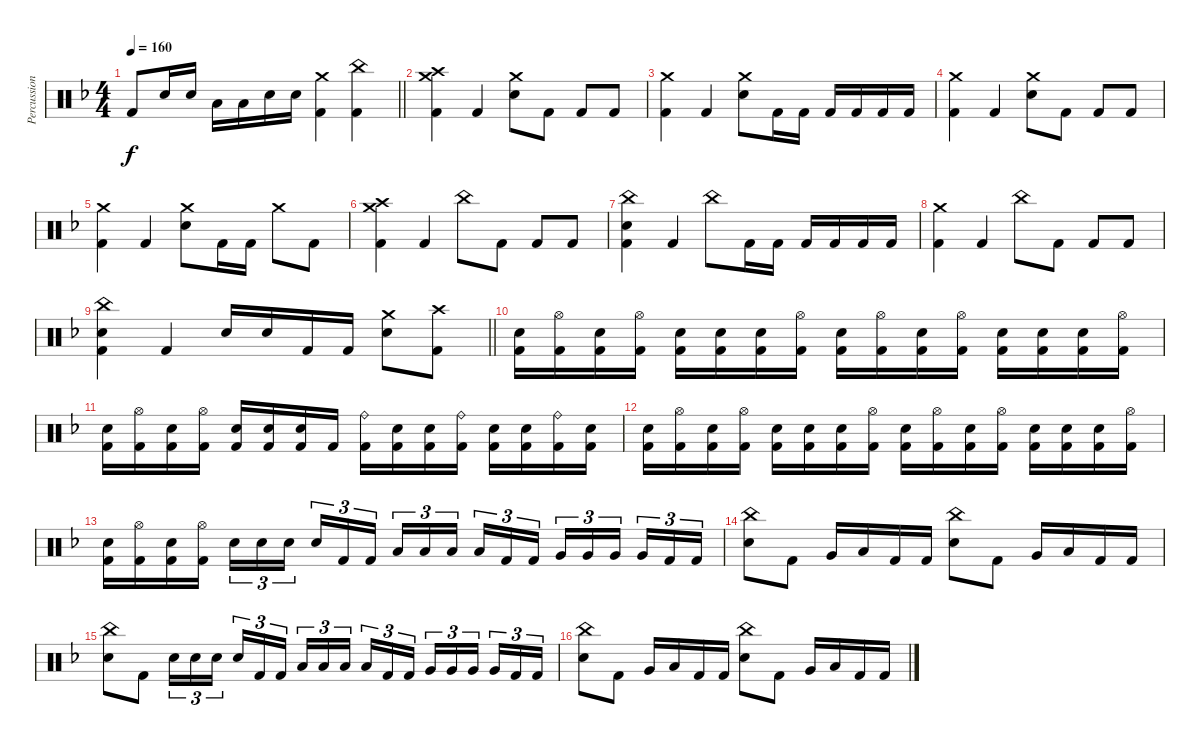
\track ("Percussion" "Percussion") {instrument percussion}
\staff {score}
\articulation defaults
\ts (4 4)
\tempo 160
\clef neutral
\barLineRight lightlight
\ks dminor "Kick (hit) 2".8{dy f} "Electric Snare (hit)".16 "Electric Snare (hit)".16 "Low Tom (hit)".16 "Low Tom (hit)".16 "Electric Snare (hit)".16 "Electric Snare (hit)".16
("Crash medium (hit)" "Kick (hit) 2").4 ("China (hit)" "Kick (hit) 2").4 |
("Crash medium (hit)" "Crash high (hit)" "Kick (hit) 2").4 "Kick (hit) 2".4 ("Crash medium (hit)" "Electric Snare (hit)").8 "Kick (hit) 2".8 "Kick (hit) 2".8 "Kick (hit) 2".8 |
("Crash medium (hit)" "Kick (hit) 2").4 "Kick (hit) 2".4 ("Crash medium (hit)" "Electric Snare (hit)").8 "Kick (hit) 2".16 "Kick (hit) 2".16 "Kick (hit) 2".16 "Kick (hit) 2".16 "Kick (hit) 2".16 "Kick (hit) 2".16 |
("Crash medium (hit)" "Kick (hit) 2").4 "Kick (hit) 2".4 ("Crash medium (hit)" "Electric Snare (hit)").8 "Kick (hit) 2".8 "Kick (hit) 2".8 "Kick (hit) 2".8 |
("Crash medium (hit)" "Kick (hit) 2").4 "Kick (hit) 2".4 ("Crash medium (hit)" "Electric Snare (hit)").8 "Kick (hit) 2".16 "Kick (hit) 2".16 "Crash medium (hit)".8 "Kick (hit) 2".8 |
("Crash medium (hit)" "Crash high (hit)" "Kick (hit) 2").4 "Kick (hit) 2".4 "China (hit)".8 "Kick (hit) 2".8 "Kick (hit) 2".8 "Kick (hit) 2".8 |
("China (hit)" "Electric Snare (hit)" "Kick (hit) 2").4 "Kick (hit) 2".4 "China (hit)".8 "Kick (hit) 2".16 "Kick (hit) 2".16 "Kick (hit) 2".16 "Kick (hit) 2".16 "Kick (hit) 2".16 "Kick (hit) 2".16 |
("Crash medium (hit)" "Kick (hit) 2").4 "Kick (hit) 2".4 "China (hit)".8 "Kick (hit) 2".8 "Kick (hit) 2".8 "Kick (hit) 2".8 |
\barLineRight lightlight
("China (hit)" "Electric Snare (hit)" "Kick (hit) 2").4 "Kick (hit) 2".4 "Electric Snare (hit)".16 "Electric Snare (hit)".16 "Kick (hit) 2".16 "Kick (hit) 2".16 ("Crash medium (hit)" "Electric Snare (hit)").8 ("Crash high (hit)" "Kick (hit) 2").8 |
("Electric Snare (hit)" "Kick (hit) 2").16 ("Hi-Hat (open)" "Kick (hit) 2").16 ("Electric Snare (hit)" "Kick (hit) 2").16 ("Hi-Hat (open)" "Kick (hit) 2").16 ("Electric Snare (hit)" "Kick (hit) 2").16 ("Electric Snare (hit)" "Kick (hit) 2").16 ("Electric Snare (hit)" "Kick (hit) 2").16 ("Hi-Hat (open)" "Kick (hit) 2").16 ("Electric Snare (hit)" "Kick (hit) 2").16 ("Hi-Hat (open)" "Kick (hit) 2").16 ("Electric Snare (hit)" "Kick (hit) 2").16 ("Hi-Hat (open)" "Kick (hit) 2").16 ("Electric Snare (hit)" "Kick (hit) 2").16 ("Electric Snare (hit)" "Kick (hit) 2").16 ("Electric Snare (hit)" "Kick (hit) 2").16 ("Hi-Hat (open)" "Kick (hit) 2").16 |
("Electric Snare (hit)" "Kick (hit) 2").16 ("Hi-Hat (open)" "Kick (hit) 2").16 ("Electric Snare (hit)" "Kick (hit) 2").16 ("Hi-Hat (open)" "Kick (hit) 2").16 ("Electric Snare (hit)" "Kick (hit) 2").16 ("Electric Snare (hit)" "Kick (hit) 2").16 ("Electric Snare (hit)" "Kick (hit) 2").16 "Kick (hit) 2".16 ("Ride (bell)" "Kick (hit) 2").16 ("Electric Snare (hit)" "Kick (hit) 2").16 ("Electric Snare (hit)" "Kick (hit) 2").16 ("Ride (bell)" "Kick (hit) 2").16 ("Electric Snare (hit)" "Kick (hit) 2").16 ("Electric Snare (hit)" "Kick (hit) 2").16 ("Ride (bell)" "Kick (hit) 2").16 ("Electric Snare (hit)" "Kick (hit) 2").16 |
("Electric Snare (hit)" "Kick (hit) 2").16 ("Hi-Hat (open)" "Kick (hit) 2").16 ("Electric Snare (hit)" "Kick (hit) 2").16 ("Hi-Hat (open)" "Kick (hit) 2").16 ("Electric Snare (hit)" "Kick (hit) 2").16 ("Electric Snare (hit)" "Kick (hit) 2").16 ("Electric Snare (hit)" "Kick (hit) 2").16 ("Hi-Hat (open)" "Kick (hit) 2").16 ("Electric Snare (hit)" "Kick (hit) 2").16 ("Hi-Hat (open)" "Kick (hit) 2").16 ("Electric Snare (hit)" "Kick (hit) 2").16 ("Hi-Hat (open)" "Kick (hit) 2").16 ("Electric Snare (hit)" "Kick (hit) 2").16 ("Electric Snare (hit)" "Kick (hit) 2").16 ("Electric Snare (hit)" "Kick (hit) 2").16 ("Hi-Hat (open)" "Kick (hit) 2").16 |
("Electric Snare (hit)" "Kick (hit) 2").16 ("Hi-Hat (open)" "Kick (hit) 2").16 ("Electric Snare (hit)" "Kick (hit) 2").16 ("Hi-Hat (open)" "Kick (hit) 2").16 "Electric Snare (hit)".16{tu (3 2)} "Electric Snare (hit)".16{tu (3 2)} "Electric Snare (hit)".16{tu (3 2) beam splitsecondary} "Electric Snare (hit)".16{tu (3 2)} "Kick (hit) 2".16{tu (3 2)} "Kick (hit) 2".16{tu (3 2)} "Low Tom (hit)".16{tu (3 2)} "Low Tom (hit)".16{tu (3 2)} "Low Tom (hit)".16{tu (3 2) beam splitsecondary} "Low Tom (hit)".16{tu (3 2)} "Kick (hit) 2".16{tu (3 2)} "Kick (hit) 2".16{tu (3 2)} "Very Low Tom (hit)".16{tu (3 2)} "Very Low Tom (hit)".16{tu (3 2)} "Very Low Tom (hit)".16{tu (3 2) beam splitsecondary} "Very Low Tom (hit)".16{tu (3 2)} "Kick (hit) 2".16{tu (3 2)} "Kick (hit) 2".16{tu (3 2)} |
("China (hit)" "Electric Snare (hit)").8 "Kick (hit) 2".8 "Very Low Tom (hit)".16 "Low Tom (hit)".16 "Kick (hit) 2".16 "Kick (hit) 2".16 ("China (hit)" "Electric Snare (hit)").8 "Kick (hit) 2".8 "Very Low Tom (hit)".16 "Low Tom (hit)".16 "Kick (hit) 2".16 "Kick (hit) 2".16 |
("China (hit)" "Electric Snare (hit)").8 "Kick (hit) 2".8 "Electric Snare (hit)".16{tu (3 2)} "Electric Snare (hit)".16{tu (3 2)} "Electric Snare (hit)".16{tu (3 2) beam splitsecondary} "Electric Snare (hit)".16{tu (3 2)} "Kick (hit) 2".16{tu (3 2)} "Kick (hit) 2".16{tu (3 2)} "Low Tom (hit)".16{tu (3 2)} "Low Tom (hit)".16{tu (3 2)} "Low Tom (hit)".16{tu (3 2) beam splitsecondary} "Low Tom (hit)".16{tu (3 2)} "Kick (hit) 2".16{tu (3 2)} "Kick (hit) 2".16{tu (3 2)} "Very Low Tom (hit)".16{tu (3 2)} "Very Low Tom (hit)".16{tu (3 2)} "Very Low Tom (hit)".16{tu (3 2) beam splitsecondary} "Very Low Tom (hit)".16{tu (3 2)} "Kick (hit) 2".16{tu (3 2)} "Kick (hit) 2".16{tu (3 2)} |
("China (hit)" "Electric Snare (hit)").8 "Kick (hit) 2".8 "Very Low Tom (hit)".16 "Low Tom (hit)".16 "Kick (hit) 2".16 "Kick (hit) 2".16 ("China (hit)" "Electric Snare (hit)").8 "Kick (hit) 2".8 "Very Low Tom (hit)".16 "Low Tom (hit)".16 "Kick (hit) 2".16 "Kick (hit) 2".16
